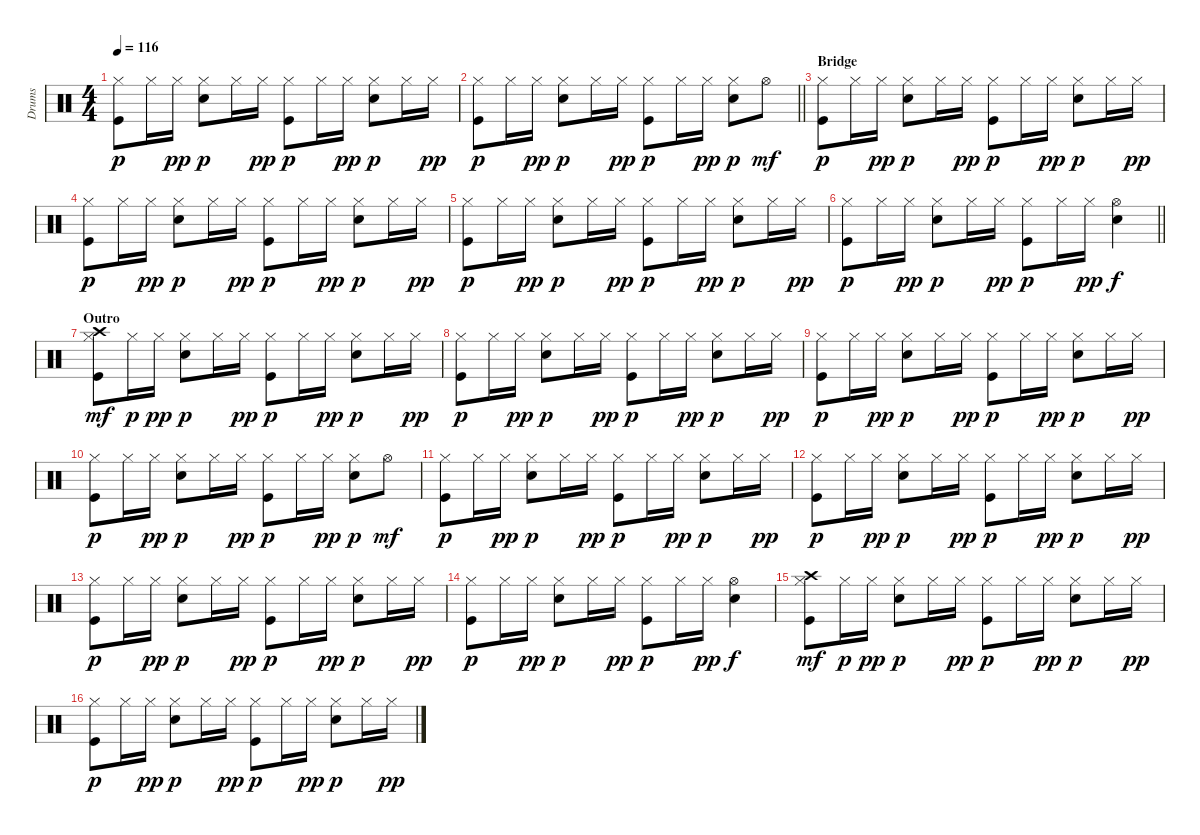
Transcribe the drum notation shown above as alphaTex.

\track ("Drums" "Drums") {instrument percussion}
\staff {score}
\articulation defaults
\ts (4 4)
\tempo 116
\clef neutral
\ks c
("Hi-Hat (closed)" "Kick (hit)").8{dy p} "Hi-Hat (closed)".16 "Hi-Hat (closed)".16{dy pp} ("Hi-Hat (closed)" "Snare (hit) 2").8{dy p} "Hi-Hat (closed)".16 "Hi-Hat (closed)".16{dy pp} ("Hi-Hat (closed)" "Kick (hit)").8{dy p} "Hi-Hat (closed)".16 "Hi-Hat (closed)".16{dy pp} ("Hi-Hat (closed)" "Snare (hit) 2").8{dy p} "Hi-Hat (closed)".16 "Hi-Hat (closed)".16{dy pp} |
\barLineRight lightlight
("Hi-Hat (closed)" "Kick (hit)").8{dy p} "Hi-Hat (closed)".16 "Hi-Hat (closed)".16{dy pp} ("Hi-Hat (closed)" "Snare (hit) 2").8{dy p} "Hi-Hat (closed)".16 "Hi-Hat (closed)".16{dy pp} ("Hi-Hat (closed)" "Kick (hit)").8{dy p} "Hi-Hat (closed)".16 "Hi-Hat (closed)".16{dy pp} ("Hi-Hat (closed)" "Snare (hit) 2").8{dy p} "Hi-Hat (open)".8{dy mf} |
\section ("" "Bridge")
("Hi-Hat (closed)" "Kick (hit)").8{dy p} "Hi-Hat (closed)".16 "Hi-Hat (closed)".16{dy pp} ("Hi-Hat (closed)" "Snare (hit) 2").8{dy p} "Hi-Hat (closed)".16 "Hi-Hat (closed)".16{dy pp} ("Hi-Hat (closed)" "Kick (hit)").8{dy p} "Hi-Hat (closed)".16 "Hi-Hat (closed)".16{dy pp} ("Hi-Hat (closed)" "Snare (hit) 2").8{dy p} "Hi-Hat (closed)".16 "Hi-Hat (closed)".16{dy pp} |
("Hi-Hat (closed)" "Kick (hit)").8{dy p} "Hi-Hat (closed)".16 "Hi-Hat (closed)".16{dy pp} ("Hi-Hat (closed)" "Snare (hit) 2").8{dy p} "Hi-Hat (closed)".16 "Hi-Hat (closed)".16{dy pp} ("Hi-Hat (closed)" "Kick (hit)").8{dy p} "Hi-Hat (closed)".16 "Hi-Hat (closed)".16{dy pp} ("Hi-Hat (closed)" "Snare (hit) 2").8{dy p} "Hi-Hat (closed)".16 "Hi-Hat (closed)".16{dy pp} |
("Hi-Hat (closed)" "Kick (hit)").8{dy p} "Hi-Hat (closed)".16 "Hi-Hat (closed)".16{dy pp} ("Hi-Hat (closed)" "Snare (hit) 2").8{dy p} "Hi-Hat (closed)".16 "Hi-Hat (closed)".16{dy pp} ("Hi-Hat (closed)" "Kick (hit)").8{dy p} "Hi-Hat (closed)".16 "Hi-Hat (closed)".16{dy pp} ("Hi-Hat (closed)" "Snare (hit) 2").8{dy p} "Hi-Hat (closed)".16 "Hi-Hat (closed)".16{dy pp} |
\barLineRight lightlight
("Hi-Hat (closed)" "Kick (hit)").8{dy p} "Hi-Hat (closed)".16 "Hi-Hat (closed)".16{dy pp} ("Hi-Hat (closed)" "Snare (hit) 2").8{dy p} "Hi-Hat (closed)".16 "Hi-Hat (closed)".16{dy pp} ("Hi-Hat (closed)" "Kick (hit)").8{dy p} "Hi-Hat (closed)".16 "Hi-Hat (closed)".16{dy pp} ("Hi-Hat (open)" "Snare (hit) 2").4{dy f} |
\section ("" "Outro")
("Hi-Hat (closed)" "Crash high (hit)" "Kick (hit)").8{dy mf} "Hi-Hat (closed)".16{dy p} "Hi-Hat (closed)".16{dy pp} ("Hi-Hat (closed)" "Snare (hit) 2").8{dy p} "Hi-Hat (closed)".16 "Hi-Hat (closed)".16{dy pp} ("Hi-Hat (closed)" "Kick (hit)").8{dy p} "Hi-Hat (closed)".16 "Hi-Hat (closed)".16{dy pp} ("Hi-Hat (closed)" "Snare (hit) 2").8{dy p} "Hi-Hat (closed)".16 "Hi-Hat (closed)".16{dy pp} |
("Hi-Hat (closed)" "Kick (hit)").8{dy p} "Hi-Hat (closed)".16 "Hi-Hat (closed)".16{dy pp} ("Hi-Hat (closed)" "Snare (hit) 2").8{dy p} "Hi-Hat (closed)".16 "Hi-Hat (closed)".16{dy pp} ("Hi-Hat (closed)" "Kick (hit)").8{dy p} "Hi-Hat (closed)".16 "Hi-Hat (closed)".16{dy pp} ("Hi-Hat (closed)" "Snare (hit) 2").8{dy p} "Hi-Hat (closed)".16 "Hi-Hat (closed)".16{dy pp} |
("Hi-Hat (closed)" "Kick (hit)").8{dy p} "Hi-Hat (closed)".16 "Hi-Hat (closed)".16{dy pp} ("Hi-Hat (closed)" "Snare (hit) 2").8{dy p} "Hi-Hat (closed)".16 "Hi-Hat (closed)".16{dy pp} ("Hi-Hat (closed)" "Kick (hit)").8{dy p} "Hi-Hat (closed)".16 "Hi-Hat (closed)".16{dy pp} ("Hi-Hat (closed)" "Snare (hit) 2").8{dy p} "Hi-Hat (closed)".16 "Hi-Hat (closed)".16{dy pp} |
("Hi-Hat (closed)" "Kick (hit)").8{dy p} "Hi-Hat (closed)".16 "Hi-Hat (closed)".16{dy pp} ("Hi-Hat (closed)" "Snare (hit) 2").8{dy p} "Hi-Hat (closed)".16 "Hi-Hat (closed)".16{dy pp} ("Hi-Hat (closed)" "Kick (hit)").8{dy p} "Hi-Hat (closed)".16 "Hi-Hat (closed)".16{dy pp} ("Hi-Hat (closed)" "Snare (hit) 2").8{dy p} "Hi-Hat (open)".8{dy mf} |
("Hi-Hat (closed)" "Kick (hit)").8{dy p} "Hi-Hat (closed)".16 "Hi-Hat (closed)".16{dy pp} ("Hi-Hat (closed)" "Snare (hit) 2").8{dy p} "Hi-Hat (closed)".16 "Hi-Hat (closed)".16{dy pp} ("Hi-Hat (closed)" "Kick (hit)").8{dy p} "Hi-Hat (closed)".16 "Hi-Hat (closed)".16{dy pp} ("Hi-Hat (closed)" "Snare (hit) 2").8{dy p} "Hi-Hat (closed)".16 "Hi-Hat (closed)".16{dy pp} |
("Hi-Hat (closed)" "Kick (hit)").8{dy p} "Hi-Hat (closed)".16 "Hi-Hat (closed)".16{dy pp} ("Hi-Hat (closed)" "Snare (hit) 2").8{dy p} "Hi-Hat (closed)".16 "Hi-Hat (closed)".16{dy pp} ("Hi-Hat (closed)" "Kick (hit)").8{dy p} "Hi-Hat (closed)".16 "Hi-Hat (closed)".16{dy pp} ("Hi-Hat (closed)" "Snare (hit) 2").8{dy p} "Hi-Hat (closed)".16 "Hi-Hat (closed)".16{dy pp} |
("Hi-Hat (closed)" "Kick (hit)").8{dy p} "Hi-Hat (closed)".16 "Hi-Hat (closed)".16{dy pp} ("Hi-Hat (closed)" "Snare (hit) 2").8{dy p} "Hi-Hat (closed)".16 "Hi-Hat (closed)".16{dy pp} ("Hi-Hat (closed)" "Kick (hit)").8{dy p} "Hi-Hat (closed)".16 "Hi-Hat (closed)".16{dy pp} ("Hi-Hat (closed)" "Snare (hit) 2").8{dy p} "Hi-Hat (closed)".16 "Hi-Hat (closed)".16{dy pp} |
("Hi-Hat (closed)" "Kick (hit)").8{dy p} "Hi-Hat (closed)".16 "Hi-Hat (closed)".16{dy pp} ("Hi-Hat (closed)" "Snare (hit) 2").8{dy p} "Hi-Hat (closed)".16 "Hi-Hat (closed)".16{dy pp} ("Hi-Hat (closed)" "Kick (hit)").8{dy p} "Hi-Hat (closed)".16 "Hi-Hat (closed)".16{dy pp} ("Hi-Hat (open)" "Snare (hit) 2").4{dy f} |
("Hi-Hat (closed)" "Crash high (hit)" "Kick (hit)").8{dy mf} "Hi-Hat (closed)".16{dy p} "Hi-Hat (closed)".16{dy pp} ("Hi-Hat (closed)" "Snare (hit) 2").8{dy p} "Hi-Hat (closed)".16 "Hi-Hat (closed)".16{dy pp} ("Hi-Hat (closed)" "Kick (hit)").8{dy p} "Hi-Hat (closed)".16 "Hi-Hat (closed)".16{dy pp} ("Hi-Hat (closed)" "Snare (hit) 2").8{dy p} "Hi-Hat (closed)".16 "Hi-Hat (closed)".16{dy pp} |
("Hi-Hat (closed)" "Kick (hit)").8{dy p} "Hi-Hat (closed)".16 "Hi-Hat (closed)".16{dy pp} ("Hi-Hat (closed)" "Snare (hit) 2").8{dy p} "Hi-Hat (closed)".16 "Hi-Hat (closed)".16{dy pp} ("Hi-Hat (closed)" "Kick (hit)").8{dy p} "Hi-Hat (closed)".16 "Hi-Hat (closed)".16{dy pp} ("Hi-Hat (closed)" "Snare (hit) 2").8{dy p} "Hi-Hat (closed)".16 "Hi-Hat (closed)".16{dy pp}
